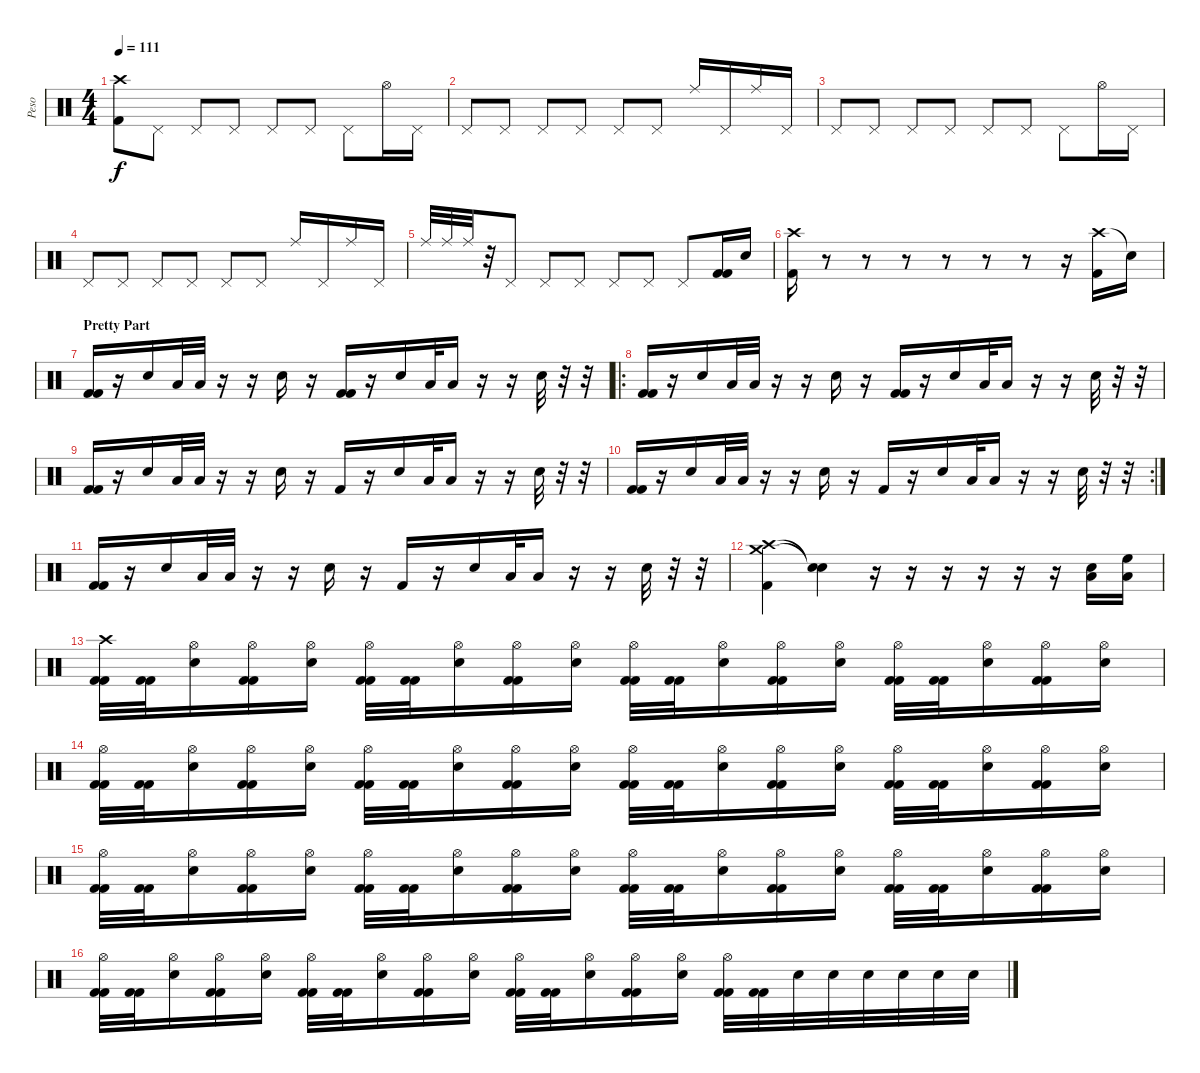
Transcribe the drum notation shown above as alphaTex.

\track ("Peso" "Peso") {instrument percussion}
\staff {score}
\articulation defaults
\ts (4 4)
\tempo 111
\clef neutral
\ks c
("Crash high (hit)" "Kick (hit) 2").8{dy f} "Pedal Hi-Hat (hit)".8 "Pedal Hi-Hat (hit)".8 "Pedal Hi-Hat (hit)".8 "Pedal Hi-Hat (hit)".8 "Pedal Hi-Hat (hit)".8 "Pedal Hi-Hat (hit)".8 "Hi-Hat (open)".16 "Pedal Hi-Hat (hit)".16 |
"Pedal Hi-Hat (hit)".8 "Pedal Hi-Hat (hit)".8 "Pedal Hi-Hat (hit)".8 "Pedal Hi-Hat (hit)".8 "Pedal Hi-Hat (hit)".8 "Pedal Hi-Hat (hit)".8 "Ride (middle)".16 "Pedal Hi-Hat (hit)".16 "Ride (middle)".16 "Pedal Hi-Hat (hit)".16 |
"Pedal Hi-Hat (hit)".8 "Pedal Hi-Hat (hit)".8 "Pedal Hi-Hat (hit)".8 "Pedal Hi-Hat (hit)".8 "Pedal Hi-Hat (hit)".8 "Pedal Hi-Hat (hit)".8 "Pedal Hi-Hat (hit)".8 "Hi-Hat (open)".16 "Pedal Hi-Hat (hit)".16 |
"Pedal Hi-Hat (hit)".8 "Pedal Hi-Hat (hit)".8 "Pedal Hi-Hat (hit)".8 "Pedal Hi-Hat (hit)".8 "Pedal Hi-Hat (hit)".8 "Pedal Hi-Hat (hit)".8 "Ride (middle)".16 "Pedal Hi-Hat (hit)".16 "Ride (middle)".16 "Pedal Hi-Hat (hit)".16 |
"Ride (middle)".32 "Ride (middle)".32 "Ride (middle)".32 r.32 "Pedal Hi-Hat (hit)".8 "Pedal Hi-Hat (hit)".8 "Pedal Hi-Hat (hit)".8 "Pedal Hi-Hat (hit)".8 "Pedal Hi-Hat (hit)".8 "Pedal Hi-Hat (hit)".8 ("Kick (hit) 2" "Kick (hit) 2").16 "Snare (hit) 2".16 |
("Crash high (hit)" "Kick (hit) 2").16 r.8 r.8 r.8 r.8 r.8 r.8 r.16 ("Crash high (hit)" "Kick (hit) 2").16 "Snare (hit)"{t}.16 |
\section ("" "Pretty Part")
("Kick (hit) 2" "Kick (hit) 2").16 r.16 "Snare (hit) 2".16 "Low Floor Tom (hit)".32 "Low Floor Tom (hit)".32 r.16 r.16 "Snare (hit) 2".16 r.16 ("Kick (hit) 2" "Kick (hit) 2").16 r.16 "Snare (hit) 2".16 "Low Floor Tom (hit)".32 "Low Floor Tom (hit)".16 r.16 r.16 "Snare (hit) 2".32 r.32 r.32 |
\ro
("Kick (hit) 2" "Kick (hit) 2").16 r.16 "Snare (hit) 2".16 "Low Floor Tom (hit)".32 "Low Floor Tom (hit)".32 r.16 r.16 "Snare (hit) 2".16 r.16 ("Kick (hit) 2" "Kick (hit) 2").16 r.16 "Snare (hit) 2".16 "Low Floor Tom (hit)".32 "Low Floor Tom (hit)".16 r.16 r.16 "Snare (hit) 2".32 r.32 r.32 |
("Kick (hit) 2" "Kick (hit) 2").16 r.16 "Snare (hit) 2".16 "Low Floor Tom (hit)".32 "Low Floor Tom (hit)".32 r.16 r.16 "Snare (hit) 2".16 r.16 "Kick (hit) 2".16 r.16 "Snare (hit) 2".16 "Low Floor Tom (hit)".32 "Low Floor Tom (hit)".16 r.16 r.16 "Snare (hit) 2".32 r.32 r.32 |
\rc 2
("Kick (hit) 2" "Kick (hit) 2").16 r.16 "Snare (hit) 2".16 "Low Floor Tom (hit)".32 "Low Floor Tom (hit)".32 r.16 r.16 "Snare (hit) 2".16 r.16 "Kick (hit) 2".16 r.16 "Snare (hit) 2".16 "Low Floor Tom (hit)".32 "Low Floor Tom (hit)".16 r.16 r.16 "Snare (hit) 2".32 r.32 r.32 |
("Kick (hit) 2" "Kick (hit) 2").16 r.16 "Snare (hit) 2".16 "Low Floor Tom (hit)".32 "Low Floor Tom (hit)".32 r.16 r.16 "Snare (hit) 2".16 r.16 "Kick (hit) 2".16 r.16 "Snare (hit) 2".16 "Low Floor Tom (hit)".32 "Low Floor Tom (hit)".16 r.16 r.16 "Snare (hit) 2".32 r.32 r.32 |
("Crash high (hit)" "Crash medium (hit)" "Kick (hit) 2").4 ("Snare (hit)"{t} "Snare (hit)"{t}).4 r.16 r.16 r.16 r.16 r.16 r.16 ("Low Floor Tom (hit)" "Snare (hit) 2").16 ("High Floor Tom (hit)" "Low Floor Tom (hit)").16 |
("Crash high (hit)" "Kick (hit) 2" "Kick (hit) 2").32 ("Kick (hit) 2" "Kick (hit) 2").32 ("Hi-Hat (open)" "Snare (hit) 2").16 ("Hi-Hat (open)" "Kick (hit) 2" "Kick (hit) 2").16 ("Hi-Hat (open)" "Snare (hit) 2").16 ("Hi-Hat (open)" "Kick (hit) 2" "Kick (hit) 2").32 ("Kick (hit) 2" "Kick (hit) 2").32 ("Hi-Hat (open)" "Snare (hit) 2").16 ("Hi-Hat (open)" "Kick (hit) 2" "Kick (hit) 2").16 ("Hi-Hat (open)" "Snare (hit) 2").16 ("Hi-Hat (open)" "Kick (hit) 2" "Kick (hit) 2").32 ("Kick (hit) 2" "Kick (hit) 2").32 ("Hi-Hat (open)" "Snare (hit) 2").16 ("Hi-Hat (open)" "Kick (hit) 2" "Kick (hit) 2").16 ("Hi-Hat (open)" "Snare (hit) 2").16 ("Hi-Hat (open)" "Kick (hit) 2" "Kick (hit) 2").32 ("Kick (hit) 2" "Kick (hit) 2").32 ("Hi-Hat (open)" "Snare (hit) 2").16 ("Hi-Hat (open)" "Kick (hit) 2" "Kick (hit) 2").16 ("Hi-Hat (open)" "Snare (hit) 2").16 |
("Hi-Hat (open)" "Kick (hit) 2" "Kick (hit) 2").32 ("Kick (hit) 2" "Kick (hit) 2").32 ("Hi-Hat (open)" "Snare (hit) 2").16 ("Hi-Hat (open)" "Kick (hit) 2" "Kick (hit) 2").16 ("Hi-Hat (open)" "Snare (hit) 2").16 ("Hi-Hat (open)" "Kick (hit) 2" "Kick (hit) 2").32 ("Kick (hit) 2" "Kick (hit) 2").32 ("Hi-Hat (open)" "Snare (hit) 2").16 ("Hi-Hat (open)" "Kick (hit) 2" "Kick (hit) 2").16 ("Hi-Hat (open)" "Snare (hit) 2").16 ("Hi-Hat (open)" "Kick (hit) 2" "Kick (hit) 2").32 ("Kick (hit) 2" "Kick (hit) 2").32 ("Hi-Hat (open)" "Snare (hit) 2").16 ("Hi-Hat (open)" "Kick (hit) 2" "Kick (hit) 2").16 ("Hi-Hat (open)" "Snare (hit) 2").16 ("Hi-Hat (open)" "Kick (hit) 2" "Kick (hit) 2").32 ("Kick (hit) 2" "Kick (hit) 2").32 ("Hi-Hat (open)" "Snare (hit) 2").16 ("Hi-Hat (open)" "Kick (hit) 2" "Kick (hit) 2").16 ("Hi-Hat (open)" "Snare (hit) 2").16 |
("Hi-Hat (open)" "Kick (hit) 2" "Kick (hit) 2").32 ("Kick (hit) 2" "Kick (hit) 2").32 ("Hi-Hat (open)" "Snare (hit) 2").16 ("Hi-Hat (open)" "Kick (hit) 2" "Kick (hit) 2").16 ("Hi-Hat (open)" "Snare (hit) 2").16 ("Hi-Hat (open)" "Kick (hit) 2" "Kick (hit) 2").32 ("Kick (hit) 2" "Kick (hit) 2").32 ("Hi-Hat (open)" "Snare (hit) 2").16 ("Hi-Hat (open)" "Kick (hit) 2" "Kick (hit) 2").16 ("Hi-Hat (open)" "Snare (hit) 2").16 ("Hi-Hat (open)" "Kick (hit) 2" "Kick (hit) 2").32 ("Kick (hit) 2" "Kick (hit) 2").32 ("Hi-Hat (open)" "Snare (hit) 2").16 ("Hi-Hat (open)" "Kick (hit) 2" "Kick (hit) 2").16 ("Hi-Hat (open)" "Snare (hit) 2").16 ("Hi-Hat (open)" "Kick (hit) 2" "Kick (hit) 2").32 ("Kick (hit) 2" "Kick (hit) 2").32 ("Hi-Hat (open)" "Snare (hit) 2").16 ("Hi-Hat (open)" "Kick (hit) 2" "Kick (hit) 2").16 ("Hi-Hat (open)" "Snare (hit) 2").16 |
("Hi-Hat (open)" "Kick (hit) 2" "Kick (hit) 2").32 ("Kick (hit) 2" "Kick (hit) 2").32 ("Hi-Hat (open)" "Snare (hit) 2").16 ("Hi-Hat (open)" "Kick (hit) 2" "Kick (hit) 2").16 ("Hi-Hat (open)" "Snare (hit) 2").16 ("Hi-Hat (open)" "Kick (hit) 2" "Kick (hit) 2").32 ("Kick (hit) 2" "Kick (hit) 2").32 ("Hi-Hat (open)" "Snare (hit) 2").16 ("Hi-Hat (open)" "Kick (hit) 2" "Kick (hit) 2").16 ("Hi-Hat (open)" "Snare (hit) 2").16 ("Hi-Hat (open)" "Kick (hit) 2" "Kick (hit) 2").32 ("Kick (hit) 2" "Kick (hit) 2").32 ("Hi-Hat (open)" "Snare (hit) 2").16 ("Hi-Hat (open)" "Kick (hit) 2" "Kick (hit) 2").16 ("Hi-Hat (open)" "Snare (hit) 2").16 ("Hi-Hat (open)" "Kick (hit) 2" "Kick (hit) 2").32 ("Kick (hit) 2" "Kick (hit) 2").32 "Snare (hit) 2".32 "Snare (hit) 2".32 "Snare (hit) 2".32 "Snare (hit) 2".32 "Snare (hit) 2".32 "Snare (hit) 2".32
